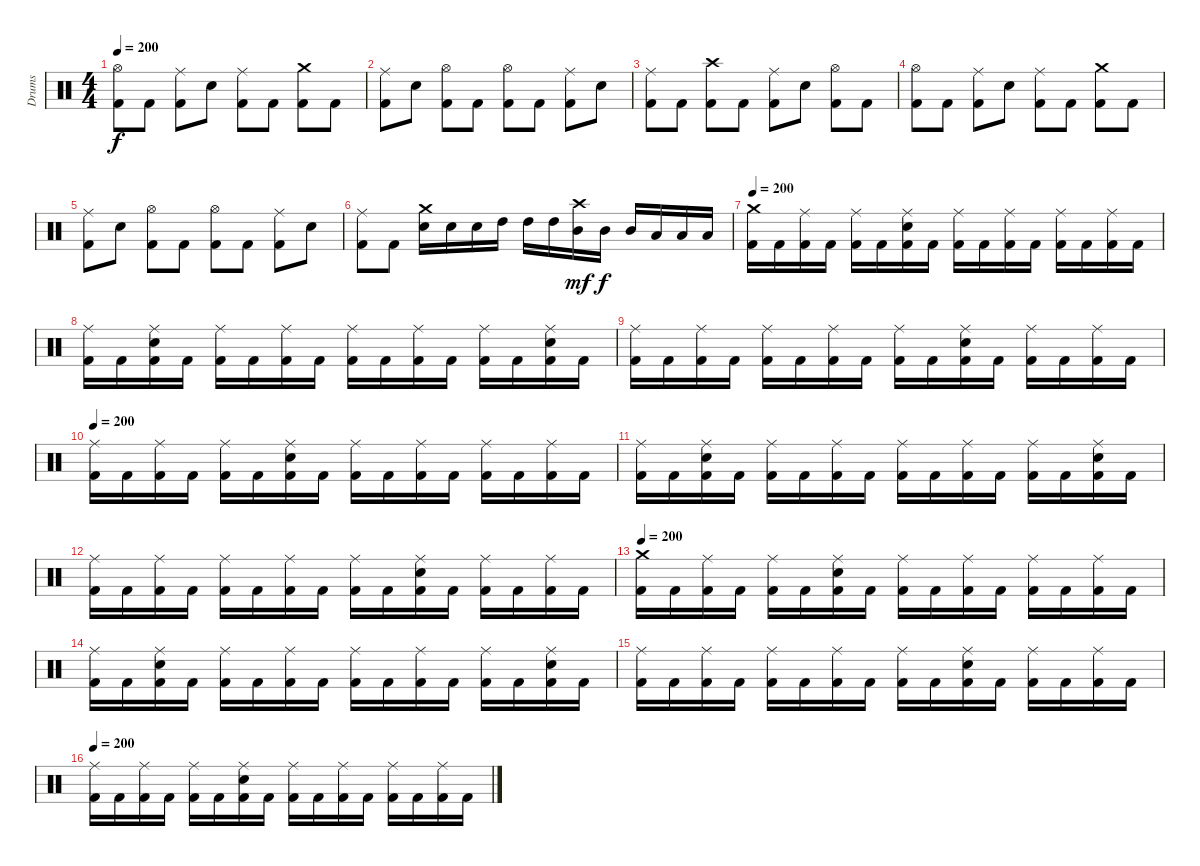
\track ("Drums" "Drums") {instrument percussion}
\staff {score}
\articulation defaults
\ts (4 4)
\tempo 200
\clef neutral
\ks c
("Hi-Hat (open)" "Kick (hit) 2").8{dy f} "Kick (hit) 2".8 ("Ride (middle)" "Kick (hit) 2").8 "Electric Snare (hit)".8 ("Ride (middle)" "Kick (hit) 2").8 "Kick (hit) 2".8 ("Crash medium (hit)" "Kick (hit) 2").8 "Kick (hit) 2".8 |
("Ride (middle)" "Kick (hit) 2").8 "Electric Snare (hit)".8 ("Hi-Hat (open)" "Kick (hit) 2").8 "Kick (hit) 2".8 ("Hi-Hat (open)" "Kick (hit) 2").8 "Kick (hit) 2".8 ("Ride (middle)" "Kick (hit) 2").8 "Electric Snare (hit)".8 |
("Ride (middle)" "Kick (hit) 2").8 "Kick (hit) 2".8 ("Crash high (hit)" "Kick (hit) 2").8 "Kick (hit) 2".8 ("Ride (middle)" "Kick (hit) 2").8 "Electric Snare (hit)".8 ("Hi-Hat (open)" "Kick (hit) 2").8 "Kick (hit) 2".8 |
("Hi-Hat (open)" "Kick (hit) 2").8 "Kick (hit) 2".8 ("Ride (middle)" "Kick (hit) 2").8 "Electric Snare (hit)".8 ("Ride (middle)" "Kick (hit) 2").8 "Kick (hit) 2".8 ("Crash medium (hit)" "Kick (hit) 2").8 "Kick (hit) 2".8 |
("Ride (middle)" "Kick (hit) 2").8 "Electric Snare (hit)".8 ("Hi-Hat (open)" "Kick (hit) 2").8 "Kick (hit) 2".8 ("Hi-Hat (open)" "Kick (hit) 2").8 "Kick (hit) 2".8 ("Ride (middle)" "Kick (hit) 2").8 "Electric Snare (hit)".8 |
("Ride (middle)" "Kick (hit) 2").8 "Kick (hit) 2".8 ("Crash medium (hit)" "Electric Snare (hit)").16 "Electric Snare (hit)".16 "Electric Snare (hit)".16 "High Tom (hit)".16 "High Tom (hit)".16 "High Tom (hit)".16 ("Crash high (hit)" "Mid Tom (hit)").16{dy mf} "Mid Tom (hit)".16{dy f} "Mid Tom (hit)".16 "Low Tom (hit)".16 "Low Tom (hit)".16 "Low Tom (hit)".16 |
\tempo 200
("Crash medium (hit)" "Kick (hit) 2").16 "Kick (hit) 2".16 ("Ride (middle)" "Kick (hit) 2").16 "Kick (hit) 2".16 ("Ride (middle)" "Kick (hit) 2").16 "Kick (hit) 2".16 ("Ride (middle)" "Electric Snare (hit)" "Kick (hit) 2").16 "Kick (hit) 2".16 ("Ride (middle)" "Kick (hit) 2").16 "Kick (hit) 2".16 ("Ride (middle)" "Kick (hit) 2").16 "Kick (hit) 2".16 ("Ride (middle)" "Kick (hit) 2").16 "Kick (hit) 2".16 ("Ride (middle)" "Kick (hit) 2").16 "Kick (hit) 2".16 |
("Ride (middle)" "Kick (hit) 2").16 "Kick (hit) 2".16 ("Ride (middle)" "Electric Snare (hit)" "Kick (hit) 2").16 "Kick (hit) 2".16 ("Ride (middle)" "Kick (hit) 2").16 "Kick (hit) 2".16 ("Ride (middle)" "Kick (hit) 2").16 "Kick (hit) 2".16 ("Ride (middle)" "Kick (hit) 2").16 "Kick (hit) 2".16 ("Ride (middle)" "Kick (hit) 2").16 "Kick (hit) 2".16 ("Ride (middle)" "Kick (hit) 2").16 "Kick (hit) 2".16 ("Ride (middle)" "Electric Snare (hit)" "Kick (hit) 2").16 "Kick (hit) 2".16 |
("Ride (middle)" "Kick (hit) 2").16 "Kick (hit) 2".16 ("Ride (middle)" "Kick (hit) 2").16 "Kick (hit) 2".16 ("Ride (middle)" "Kick (hit) 2").16 "Kick (hit) 2".16 ("Ride (middle)" "Kick (hit) 2").16 "Kick (hit) 2".16 ("Ride (middle)" "Kick (hit) 2").16 "Kick (hit) 2".16 ("Ride (middle)" "Electric Snare (hit)" "Kick (hit) 2").16 "Kick (hit) 2".16 ("Ride (middle)" "Kick (hit) 2").16 "Kick (hit) 2".16 ("Ride (middle)" "Kick (hit) 2").16 "Kick (hit) 2".16 |
\tempo 200
("Ride (middle)" "Kick (hit) 2").16 "Kick (hit) 2".16 ("Ride (middle)" "Kick (hit) 2").16 "Kick (hit) 2".16 ("Ride (middle)" "Kick (hit) 2").16 "Kick (hit) 2".16 ("Ride (middle)" "Electric Snare (hit)" "Kick (hit) 2").16 "Kick (hit) 2".16 ("Ride (middle)" "Kick (hit) 2").16 "Kick (hit) 2".16 ("Ride (middle)" "Kick (hit) 2").16 "Kick (hit) 2".16 ("Ride (middle)" "Kick (hit) 2").16 "Kick (hit) 2".16 ("Ride (middle)" "Kick (hit) 2").16 "Kick (hit) 2".16 |
("Ride (middle)" "Kick (hit) 2").16 "Kick (hit) 2".16 ("Ride (middle)" "Electric Snare (hit)" "Kick (hit) 2").16 "Kick (hit) 2".16 ("Ride (middle)" "Kick (hit) 2").16 "Kick (hit) 2".16 ("Ride (middle)" "Kick (hit) 2").16 "Kick (hit) 2".16 ("Ride (middle)" "Kick (hit) 2").16 "Kick (hit) 2".16 ("Ride (middle)" "Kick (hit) 2").16 "Kick (hit) 2".16 ("Ride (middle)" "Kick (hit) 2").16 "Kick (hit) 2".16 ("Ride (middle)" "Electric Snare (hit)" "Kick (hit) 2").16 "Kick (hit) 2".16 |
("Ride (middle)" "Kick (hit) 2").16 "Kick (hit) 2".16 ("Ride (middle)" "Kick (hit) 2").16 "Kick (hit) 2".16 ("Ride (middle)" "Kick (hit) 2").16 "Kick (hit) 2".16 ("Ride (middle)" "Kick (hit) 2").16 "Kick (hit) 2".16 ("Ride (middle)" "Kick (hit) 2").16 "Kick (hit) 2".16 ("Ride (middle)" "Electric Snare (hit)" "Kick (hit) 2").16 "Kick (hit) 2".16 ("Ride (middle)" "Kick (hit) 2").16 "Kick (hit) 2".16 ("Ride (middle)" "Kick (hit) 2").16 "Kick (hit) 2".16 |
\tempo 200
("Crash medium (hit)" "Kick (hit) 2").16 "Kick (hit) 2".16 ("Ride (middle)" "Kick (hit) 2").16 "Kick (hit) 2".16 ("Ride (middle)" "Kick (hit) 2").16 "Kick (hit) 2".16 ("Ride (middle)" "Electric Snare (hit)" "Kick (hit) 2").16 "Kick (hit) 2".16 ("Ride (middle)" "Kick (hit) 2").16 "Kick (hit) 2".16 ("Ride (middle)" "Kick (hit) 2").16 "Kick (hit) 2".16 ("Ride (middle)" "Kick (hit) 2").16 "Kick (hit) 2".16 ("Ride (middle)" "Kick (hit) 2").16 "Kick (hit) 2".16 |
("Ride (middle)" "Kick (hit) 2").16 "Kick (hit) 2".16 ("Ride (middle)" "Electric Snare (hit)" "Kick (hit) 2").16 "Kick (hit) 2".16 ("Ride (middle)" "Kick (hit) 2").16 "Kick (hit) 2".16 ("Ride (middle)" "Kick (hit) 2").16 "Kick (hit) 2".16 ("Ride (middle)" "Kick (hit) 2").16 "Kick (hit) 2".16 ("Ride (middle)" "Kick (hit) 2").16 "Kick (hit) 2".16 ("Ride (middle)" "Kick (hit) 2").16 "Kick (hit) 2".16 ("Ride (middle)" "Electric Snare (hit)" "Kick (hit) 2").16 "Kick (hit) 2".16 |
("Ride (middle)" "Kick (hit) 2").16 "Kick (hit) 2".16 ("Ride (middle)" "Kick (hit) 2").16 "Kick (hit) 2".16 ("Ride (middle)" "Kick (hit) 2").16 "Kick (hit) 2".16 ("Ride (middle)" "Kick (hit) 2").16 "Kick (hit) 2".16 ("Ride (middle)" "Kick (hit) 2").16 "Kick (hit) 2".16 ("Ride (middle)" "Electric Snare (hit)" "Kick (hit) 2").16 "Kick (hit) 2".16 ("Ride (middle)" "Kick (hit) 2").16 "Kick (hit) 2".16 ("Ride (middle)" "Kick (hit) 2").16 "Kick (hit) 2".16 |
\tempo 200
("Ride (middle)" "Kick (hit) 2").16 "Kick (hit) 2".16 ("Ride (middle)" "Kick (hit) 2").16 "Kick (hit) 2".16 ("Ride (middle)" "Kick (hit) 2").16 "Kick (hit) 2".16 ("Ride (middle)" "Electric Snare (hit)" "Kick (hit) 2").16 "Kick (hit) 2".16 ("Ride (middle)" "Kick (hit) 2").16 "Kick (hit) 2".16 ("Ride (middle)" "Kick (hit) 2").16 "Kick (hit) 2".16 ("Ride (middle)" "Kick (hit) 2").16 "Kick (hit) 2".16 ("Ride (middle)" "Kick (hit) 2").16 "Kick (hit) 2".16
